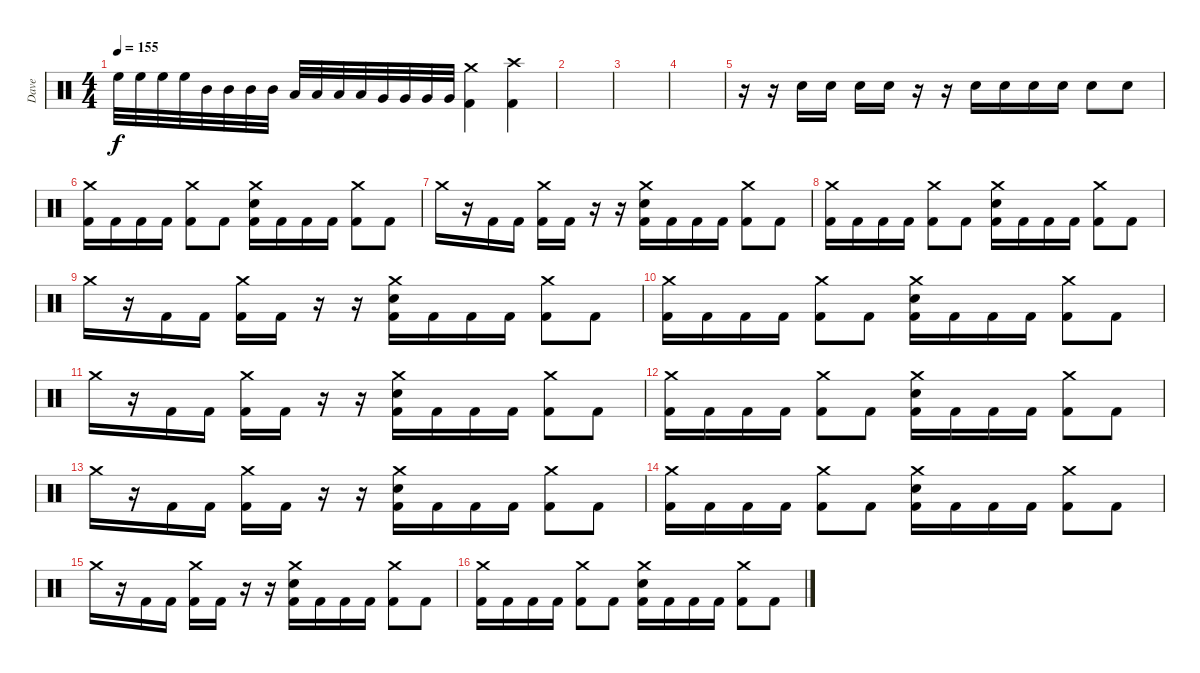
\track ("Dave" "Dave") {instrument percussion}
\staff {score}
\articulation defaults
\ts (4 4)
\tempo 155
\clef neutral
\ks c "High Floor Tom (hit)".32{dy f} "High Floor Tom (hit)".32 "High Floor Tom (hit)".32 "High Floor Tom (hit)".32 "Mid Tom (hit)".32 "Mid Tom (hit)".32 "Mid Tom (hit)".32 "Mid Tom (hit)".32 "Low Tom (hit)".32 "Low Tom (hit)".32 "Low Tom (hit)".32 "Low Tom (hit)".32 "Very Low Tom (hit)".32 "Very Low Tom (hit)".32 "Very Low Tom (hit)".32 "Very Low Tom (hit)".32
("Crash medium (hit)" "Kick (hit) 2").4 ("Crash high (hit)" "Kick (hit) 2").4 |
|
|
|
r.16 r.16 "Snare (hit) 2".16 "Snare (hit) 2".16 "Snare (hit) 2".16 "Snare (hit) 2".16 r.16 r.16 "Snare (hit) 2".16 "Snare (hit) 2".16 "Snare (hit) 2".16 "Snare (hit) 2".16 "Snare (hit) 2".8 "Snare (hit) 2".8 |
("Crash medium (hit)" "Kick (hit) 2").16 "Kick (hit) 2".16 "Kick (hit) 2".16 "Kick (hit) 2".16 ("Crash medium (hit)" "Kick (hit) 2").8 "Kick (hit) 2".8 ("Crash medium (hit)" "Snare (hit) 2" "Kick (hit) 2").16 "Kick (hit) 2".16 "Kick (hit) 2".16 "Kick (hit) 2".16 ("Crash medium (hit)" "Kick (hit) 2").8 "Kick (hit) 2".8 |
"Crash medium (hit)".16 r.16 "Kick (hit) 2".16 "Kick (hit) 2".16 ("Crash medium (hit)" "Kick (hit) 2").16 "Kick (hit) 2".16 r.16 r.16 ("Crash medium (hit)" "Snare (hit) 2" "Kick (hit) 2").16 "Kick (hit) 2".16 "Kick (hit) 2".16 "Kick (hit) 2".16 ("Crash medium (hit)" "Kick (hit) 2").8 "Kick (hit) 2".8 |
("Crash medium (hit)" "Kick (hit) 2").16 "Kick (hit) 2".16 "Kick (hit) 2".16 "Kick (hit) 2".16 ("Crash medium (hit)" "Kick (hit) 2").8 "Kick (hit) 2".8 ("Crash medium (hit)" "Snare (hit) 2" "Kick (hit) 2").16 "Kick (hit) 2".16 "Kick (hit) 2".16 "Kick (hit) 2".16 ("Crash medium (hit)" "Kick (hit) 2").8 "Kick (hit) 2".8 |
"Crash medium (hit)".16 r.16 "Kick (hit) 2".16 "Kick (hit) 2".16 ("Crash medium (hit)" "Kick (hit) 2").16 "Kick (hit) 2".16 r.16 r.16 ("Crash medium (hit)" "Snare (hit) 2" "Kick (hit) 2").16 "Kick (hit) 2".16 "Kick (hit) 2".16 "Kick (hit) 2".16 ("Crash medium (hit)" "Kick (hit) 2").8 "Kick (hit) 2".8 |
("Crash medium (hit)" "Kick (hit) 2").16 "Kick (hit) 2".16 "Kick (hit) 2".16 "Kick (hit) 2".16 ("Crash medium (hit)" "Kick (hit) 2").8 "Kick (hit) 2".8 ("Crash medium (hit)" "Snare (hit) 2" "Kick (hit) 2").16 "Kick (hit) 2".16 "Kick (hit) 2".16 "Kick (hit) 2".16 ("Crash medium (hit)" "Kick (hit) 2").8 "Kick (hit) 2".8 |
"Crash medium (hit)".16 r.16 "Kick (hit) 2".16 "Kick (hit) 2".16 ("Crash medium (hit)" "Kick (hit) 2").16 "Kick (hit) 2".16 r.16 r.16 ("Crash medium (hit)" "Snare (hit) 2" "Kick (hit) 2").16 "Kick (hit) 2".16 "Kick (hit) 2".16 "Kick (hit) 2".16 ("Crash medium (hit)" "Kick (hit) 2").8 "Kick (hit) 2".8 |
("Crash medium (hit)" "Kick (hit) 2").16 "Kick (hit) 2".16 "Kick (hit) 2".16 "Kick (hit) 2".16 ("Crash medium (hit)" "Kick (hit) 2").8 "Kick (hit) 2".8 ("Crash medium (hit)" "Snare (hit) 2" "Kick (hit) 2").16 "Kick (hit) 2".16 "Kick (hit) 2".16 "Kick (hit) 2".16 ("Crash medium (hit)" "Kick (hit) 2").8 "Kick (hit) 2".8 |
"Crash medium (hit)".16 r.16 "Kick (hit) 2".16 "Kick (hit) 2".16 ("Crash medium (hit)" "Kick (hit) 2").16 "Kick (hit) 2".16 r.16 r.16 ("Crash medium (hit)" "Snare (hit) 2" "Kick (hit) 2").16 "Kick (hit) 2".16 "Kick (hit) 2".16 "Kick (hit) 2".16 ("Crash medium (hit)" "Kick (hit) 2").8 "Kick (hit) 2".8 |
("Crash medium (hit)" "Kick (hit) 2").16 "Kick (hit) 2".16 "Kick (hit) 2".16 "Kick (hit) 2".16 ("Crash medium (hit)" "Kick (hit) 2").8 "Kick (hit) 2".8 ("Crash medium (hit)" "Snare (hit) 2" "Kick (hit) 2").16 "Kick (hit) 2".16 "Kick (hit) 2".16 "Kick (hit) 2".16 ("Crash medium (hit)" "Kick (hit) 2").8 "Kick (hit) 2".8 |
"Crash medium (hit)".16 r.16 "Kick (hit) 2".16 "Kick (hit) 2".16 ("Crash medium (hit)" "Kick (hit) 2").16 "Kick (hit) 2".16 r.16 r.16 ("Crash medium (hit)" "Snare (hit) 2" "Kick (hit) 2").16 "Kick (hit) 2".16 "Kick (hit) 2".16 "Kick (hit) 2".16 ("Crash medium (hit)" "Kick (hit) 2").8 "Kick (hit) 2".8 |
("Crash medium (hit)" "Kick (hit) 2").16 "Kick (hit) 2".16 "Kick (hit) 2".16 "Kick (hit) 2".16 ("Crash medium (hit)" "Kick (hit) 2").8 "Kick (hit) 2".8 ("Crash medium (hit)" "Snare (hit) 2" "Kick (hit) 2").16 "Kick (hit) 2".16 "Kick (hit) 2".16 "Kick (hit) 2".16 ("Crash medium (hit)" "Kick (hit) 2").8 "Kick (hit) 2".8
